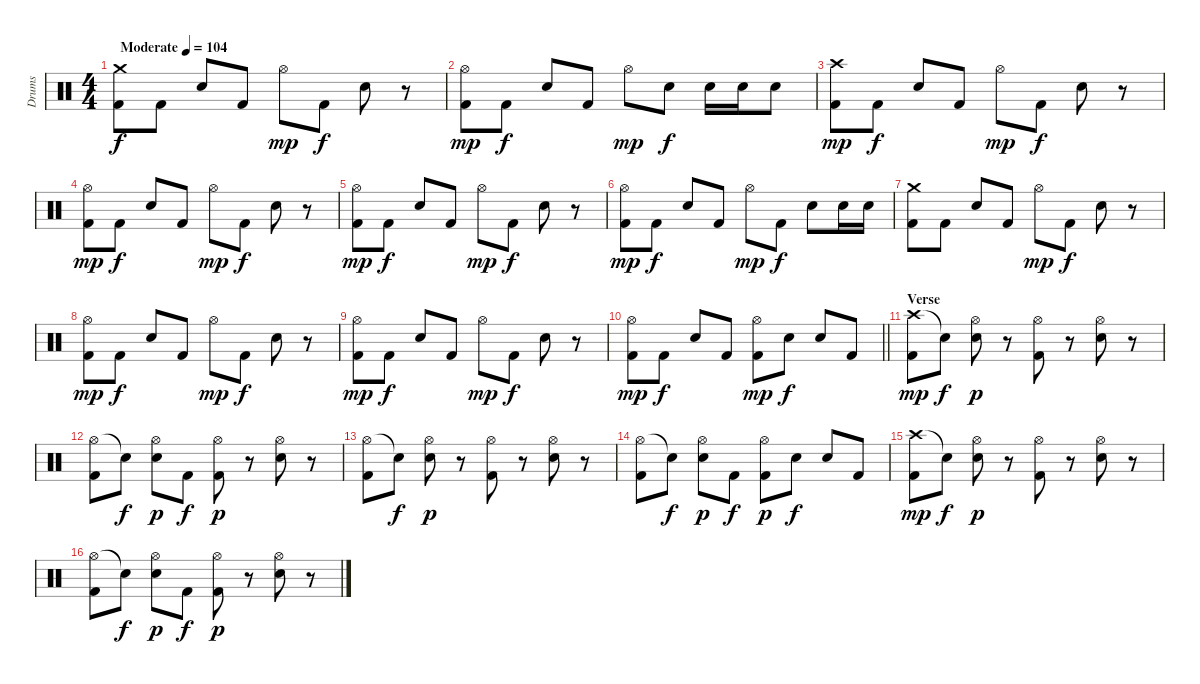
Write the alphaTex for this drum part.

\track ("Drums" "Drums") {instrument percussion}
\staff {score}
\articulation defaults
\ts (4 4)
\tempo (104 "Moderate")
\clef neutral
\ks c
("Crash medium (hit)" "Kick (hit) 2").8{dy f} "Kick (hit) 2".8 "Electric Snare (hit)".8 "Kick (hit) 2".8 "Hi-Hat (open)".8{dy mp} "Kick (hit) 2".8{dy f} "Electric Snare (hit)".8 r.8 |
("Hi-Hat (open)" "Kick (hit) 2").8{dy mp} "Kick (hit) 2".8{dy f} "Electric Snare (hit)".8 "Kick (hit) 2".8 "Hi-Hat (open)".8{dy mp} "Electric Snare (hit)".8{dy f} "Electric Snare (hit)".16 "Electric Snare (hit)".16 "Electric Snare (hit)".8 |
("Crash high (hit)" "Kick (hit) 2").8{dy mp} "Kick (hit) 2".8{dy f} "Electric Snare (hit)".8 "Kick (hit) 2".8 "Hi-Hat (open)".8{dy mp} "Kick (hit) 2".8{dy f} "Electric Snare (hit)".8 r.8 |
("Hi-Hat (open)" "Kick (hit) 2").8{dy mp} "Kick (hit) 2".8{dy f} "Electric Snare (hit)".8 "Kick (hit) 2".8 "Hi-Hat (open)".8{dy mp} "Kick (hit) 2".8{dy f} "Electric Snare (hit)".8 r.8 |
("Hi-Hat (open)" "Kick (hit) 2").8{dy mp} "Kick (hit) 2".8{dy f} "Electric Snare (hit)".8 "Kick (hit) 2".8 "Hi-Hat (open)".8{dy mp} "Kick (hit) 2".8{dy f} "Electric Snare (hit)".8 r.8 |
("Hi-Hat (open)" "Kick (hit) 2").8{dy mp} "Kick (hit) 2".8{dy f} "Electric Snare (hit)".8 "Kick (hit) 2".8 "Hi-Hat (open)".8{dy mp} "Kick (hit) 2".8{dy f} "Electric Snare (hit)".8 "Electric Snare (hit)".16 "Electric Snare (hit)".16 |
("Crash medium (hit)" "Kick (hit) 2").8 "Kick (hit) 2".8 "Electric Snare (hit)".8 "Kick (hit) 2".8 "Hi-Hat (open)".8{dy mp} "Kick (hit) 2".8{dy f} "Electric Snare (hit)".8 r.8 |
("Hi-Hat (open)" "Kick (hit) 2").8{dy mp} "Kick (hit) 2".8{dy f} "Electric Snare (hit)".8 "Kick (hit) 2".8 "Hi-Hat (open)".8{dy mp} "Kick (hit) 2".8{dy f} "Electric Snare (hit)".8 r.8 |
("Hi-Hat (open)" "Kick (hit) 2").8{dy mp} "Kick (hit) 2".8{dy f} "Electric Snare (hit)".8 "Kick (hit) 2".8 "Hi-Hat (open)".8{dy mp} "Kick (hit) 2".8{dy f} "Electric Snare (hit)".8 r.8 |
\barLineRight lightlight
("Hi-Hat (open)" "Kick (hit) 2").8{dy mp} "Kick (hit) 2".8{dy f} "Electric Snare (hit)".8 "Kick (hit) 2".8 ("Hi-Hat (open)" "Kick (hit) 2").8{dy mp} "Electric Snare (hit)".8{dy f} "Electric Snare (hit)".8 "Kick (hit) 2".8 |
\section ("" "Verse")
("Crash high (hit)" "Kick (hit) 2").8{dy mp} "Snare (hit)"{t}.8{dy f} ("Hi-Hat (open)" "Electric Snare (hit)").8{dy p} r.8 ("Hi-Hat (open)" "Kick (hit) 2").8 r.8 ("Hi-Hat (open)" "Electric Snare (hit)").8 r.8 |
("Hi-Hat (open)" "Kick (hit) 2").8 "Snare (hit)"{t}.8{dy f} ("Hi-Hat (open)" "Electric Snare (hit)").8{dy p} "Kick (hit) 2".8{dy f} ("Hi-Hat (open)" "Kick (hit) 2").8{dy p} r.8 ("Hi-Hat (open)" "Electric Snare (hit)").8 r.8 |
("Hi-Hat (open)" "Kick (hit) 2").8 "Snare (hit)"{t}.8{dy f} ("Hi-Hat (open)" "Electric Snare (hit)").8{dy p} r.8 ("Hi-Hat (open)" "Kick (hit) 2").8 r.8 ("Hi-Hat (open)" "Electric Snare (hit)").8 r.8 |
("Hi-Hat (open)" "Kick (hit) 2").8 "Snare (hit)"{t}.8{dy f} ("Hi-Hat (open)" "Electric Snare (hit)").8{dy p} "Kick (hit) 2".8{dy f} ("Hi-Hat (open)" "Kick (hit) 2").8{dy p} "Electric Snare (hit)".8{dy f} "Electric Snare (hit)".8 "Kick (hit) 2".8 |
("Crash high (hit)" "Kick (hit) 2").8{dy mp} "Snare (hit)"{t}.8{dy f} ("Hi-Hat (open)" "Electric Snare (hit)").8{dy p} r.8 ("Hi-Hat (open)" "Kick (hit) 2").8 r.8 ("Hi-Hat (open)" "Electric Snare (hit)").8 r.8 |
("Hi-Hat (open)" "Kick (hit) 2").8 "Snare (hit)"{t}.8{dy f} ("Hi-Hat (open)" "Electric Snare (hit)").8{dy p} "Kick (hit) 2".8{dy f} ("Hi-Hat (open)" "Kick (hit) 2").8{dy p} r.8 ("Hi-Hat (open)" "Electric Snare (hit)").8 r.8
